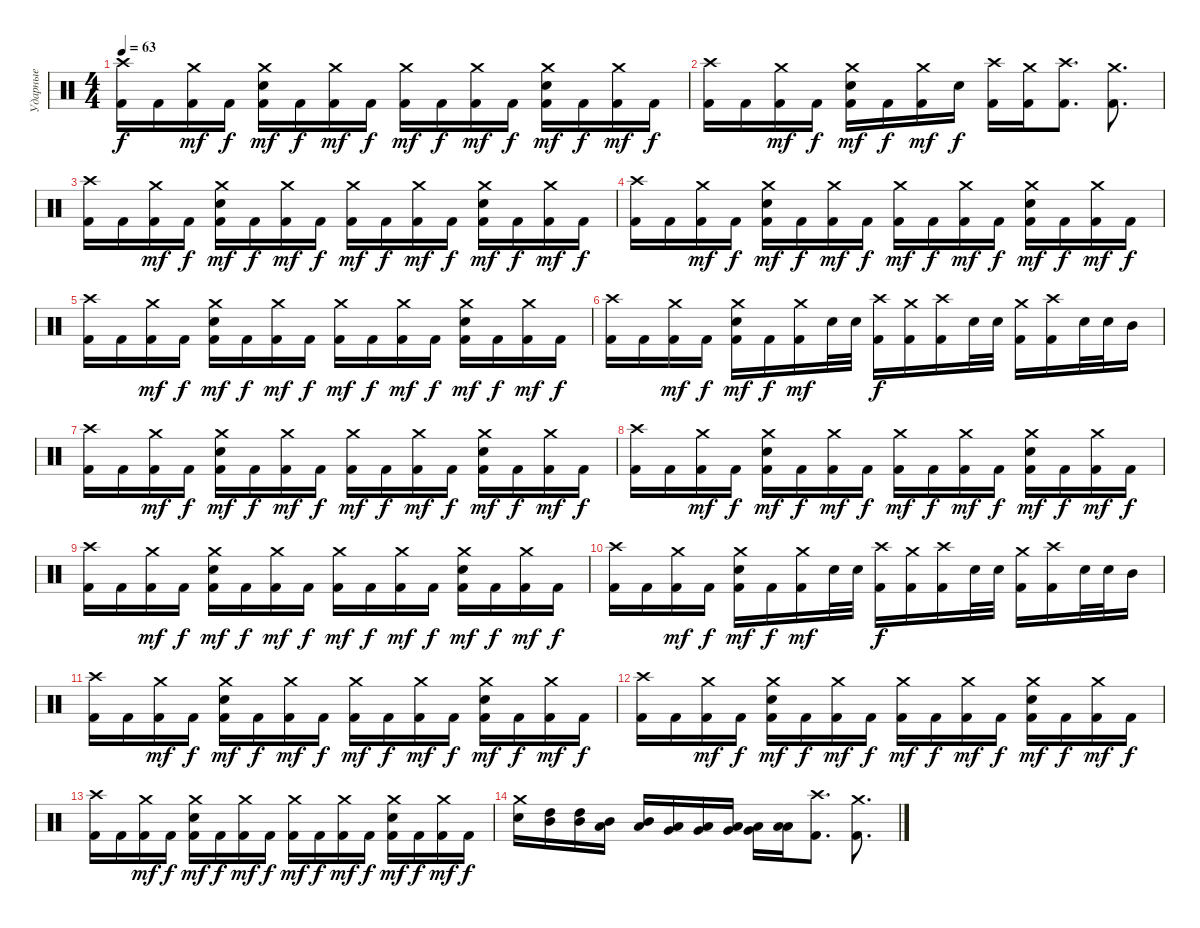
\track ("Ударные" "Ударные") {instrument percussion}
\staff {score}
\articulation defaults
\ts (4 4)
\tempo 63
\clef neutral
\ks c
("Crash high (hit)" "Kick (hit) 2").16{dy f} "Kick (hit) 2".16 ("Crash medium (hit)" "Kick (hit) 2").16{dy mf} "Kick (hit) 2".16{dy f} ("Crash medium (hit)" "Snare (hit) 2" "Kick (hit) 2").16{dy mf} "Kick (hit) 2".16{dy f} ("Crash medium (hit)" "Kick (hit) 2").16{dy mf} "Kick (hit) 2".16{dy f} ("Crash medium (hit)" "Kick (hit) 2").16{dy mf} "Kick (hit) 2".16{dy f} ("Crash medium (hit)" "Kick (hit) 2").16{dy mf} "Kick (hit) 2".16{dy f} ("Crash medium (hit)" "Snare (hit) 2" "Kick (hit) 2").16{dy mf} "Kick (hit) 2".16{dy f} ("Crash medium (hit)" "Kick (hit) 2").16{dy mf} "Kick (hit) 2".16{dy f} |
("Crash high (hit)" "Kick (hit) 2").16 "Kick (hit) 2".16 ("Crash medium (hit)" "Kick (hit) 2").16{dy mf} "Kick (hit) 2".16{dy f} ("Crash medium (hit)" "Snare (hit) 2" "Kick (hit) 2").16{dy mf} "Kick (hit) 2".16{dy f} ("Crash medium (hit)" "Kick (hit) 2").16{dy mf} "Snare (hit) 2".16{dy f} ("Crash high (hit)" "Kick (hit) 2").16 ("Crash medium (hit)" "Kick (hit) 2").16 ("Crash high (hit)" "Kick (hit) 2").8{d} ("Crash medium (hit)" "Kick (hit) 2").8{d} |
("Crash high (hit)" "Kick (hit) 2").16 "Kick (hit) 2".16 ("Crash medium (hit)" "Kick (hit) 2").16{dy mf} "Kick (hit) 2".16{dy f} ("Crash medium (hit)" "Snare (hit) 2" "Kick (hit) 2").16{dy mf} "Kick (hit) 2".16{dy f} ("Crash medium (hit)" "Kick (hit) 2").16{dy mf} "Kick (hit) 2".16{dy f} ("Crash medium (hit)" "Kick (hit) 2").16{dy mf} "Kick (hit) 2".16{dy f} ("Crash medium (hit)" "Kick (hit) 2").16{dy mf} "Kick (hit) 2".16{dy f} ("Crash medium (hit)" "Snare (hit) 2" "Kick (hit) 2").16{dy mf} "Kick (hit) 2".16{dy f} ("Crash medium (hit)" "Kick (hit) 2").16{dy mf} "Kick (hit) 2".16{dy f} |
("Crash high (hit)" "Kick (hit) 2").16 "Kick (hit) 2".16 ("Crash medium (hit)" "Kick (hit) 2").16{dy mf} "Kick (hit) 2".16{dy f} ("Crash medium (hit)" "Snare (hit) 2" "Kick (hit) 2").16{dy mf} "Kick (hit) 2".16{dy f} ("Crash medium (hit)" "Kick (hit) 2").16{dy mf} "Kick (hit) 2".16{dy f} ("Crash medium (hit)" "Kick (hit) 2").16{dy mf} "Kick (hit) 2".16{dy f} ("Crash medium (hit)" "Kick (hit) 2").16{dy mf} "Kick (hit) 2".16{dy f} ("Crash medium (hit)" "Snare (hit) 2" "Kick (hit) 2").16{dy mf} "Kick (hit) 2".16{dy f} ("Crash medium (hit)" "Kick (hit) 2").16{dy mf} "Kick (hit) 2".16{dy f} |
("Crash high (hit)" "Kick (hit) 2").16 "Kick (hit) 2".16 ("Crash medium (hit)" "Kick (hit) 2").16{dy mf} "Kick (hit) 2".16{dy f} ("Crash medium (hit)" "Snare (hit) 2" "Kick (hit) 2").16{dy mf} "Kick (hit) 2".16{dy f} ("Crash medium (hit)" "Kick (hit) 2").16{dy mf} "Kick (hit) 2".16{dy f} ("Crash medium (hit)" "Kick (hit) 2").16{dy mf} "Kick (hit) 2".16{dy f} ("Crash medium (hit)" "Kick (hit) 2").16{dy mf} "Kick (hit) 2".16{dy f} ("Crash medium (hit)" "Snare (hit) 2" "Kick (hit) 2").16{dy mf} "Kick (hit) 2".16{dy f} ("Crash medium (hit)" "Kick (hit) 2").16{dy mf} "Kick (hit) 2".16{dy f} |
("Crash high (hit)" "Kick (hit) 2").16 "Kick (hit) 2".16 ("Crash medium (hit)" "Kick (hit) 2").16{dy mf} "Kick (hit) 2".16{dy f} ("Crash medium (hit)" "Snare (hit) 2" "Kick (hit) 2").16{dy mf} "Kick (hit) 2".16{dy f} ("Crash medium (hit)" "Kick (hit) 2").16{dy mf} "Snare (hit) 2".32 "Snare (hit) 2".32 ("Crash high (hit)" "Kick (hit) 2").16{dy f} ("Crash medium (hit)" "Kick (hit) 2").16 ("Crash high (hit)" "Kick (hit) 2").16 "Snare (hit) 2".32 "Snare (hit) 2".32 ("Crash medium (hit)" "Kick (hit) 2").16 ("Crash high (hit)" "Kick (hit) 2").16 "Snare (hit) 2".32 "Snare (hit) 2".32 "Mid Tom (hit)".16 |
("Crash high (hit)" "Kick (hit) 2").16 "Kick (hit) 2".16 ("Crash medium (hit)" "Kick (hit) 2").16{dy mf} "Kick (hit) 2".16{dy f} ("Crash medium (hit)" "Snare (hit) 2" "Kick (hit) 2").16{dy mf} "Kick (hit) 2".16{dy f} ("Crash medium (hit)" "Kick (hit) 2").16{dy mf} "Kick (hit) 2".16{dy f} ("Crash medium (hit)" "Kick (hit) 2").16{dy mf} "Kick (hit) 2".16{dy f} ("Crash medium (hit)" "Kick (hit) 2").16{dy mf} "Kick (hit) 2".16{dy f} ("Crash medium (hit)" "Snare (hit) 2" "Kick (hit) 2").16{dy mf} "Kick (hit) 2".16{dy f} ("Crash medium (hit)" "Kick (hit) 2").16{dy mf} "Kick (hit) 2".16{dy f} |
("Crash high (hit)" "Kick (hit) 2").16 "Kick (hit) 2".16 ("Crash medium (hit)" "Kick (hit) 2").16{dy mf} "Kick (hit) 2".16{dy f} ("Crash medium (hit)" "Snare (hit) 2" "Kick (hit) 2").16{dy mf} "Kick (hit) 2".16{dy f} ("Crash medium (hit)" "Kick (hit) 2").16{dy mf} "Kick (hit) 2".16{dy f} ("Crash medium (hit)" "Kick (hit) 2").16{dy mf} "Kick (hit) 2".16{dy f} ("Crash medium (hit)" "Kick (hit) 2").16{dy mf} "Kick (hit) 2".16{dy f} ("Crash medium (hit)" "Snare (hit) 2" "Kick (hit) 2").16{dy mf} "Kick (hit) 2".16{dy f} ("Crash medium (hit)" "Kick (hit) 2").16{dy mf} "Kick (hit) 2".16{dy f} |
("Crash high (hit)" "Kick (hit) 2").16 "Kick (hit) 2".16 ("Crash medium (hit)" "Kick (hit) 2").16{dy mf} "Kick (hit) 2".16{dy f} ("Crash medium (hit)" "Snare (hit) 2" "Kick (hit) 2").16{dy mf} "Kick (hit) 2".16{dy f} ("Crash medium (hit)" "Kick (hit) 2").16{dy mf} "Kick (hit) 2".16{dy f} ("Crash medium (hit)" "Kick (hit) 2").16{dy mf} "Kick (hit) 2".16{dy f} ("Crash medium (hit)" "Kick (hit) 2").16{dy mf} "Kick (hit) 2".16{dy f} ("Crash medium (hit)" "Snare (hit) 2" "Kick (hit) 2").16{dy mf} "Kick (hit) 2".16{dy f} ("Crash medium (hit)" "Kick (hit) 2").16{dy mf} "Kick (hit) 2".16{dy f} |
("Crash high (hit)" "Kick (hit) 2").16 "Kick (hit) 2".16 ("Crash medium (hit)" "Kick (hit) 2").16{dy mf} "Kick (hit) 2".16{dy f} ("Crash medium (hit)" "Snare (hit) 2" "Kick (hit) 2").16{dy mf} "Kick (hit) 2".16{dy f} ("Crash medium (hit)" "Kick (hit) 2").16{dy mf} "Snare (hit) 2".32 "Snare (hit) 2".32 ("Crash high (hit)" "Kick (hit) 2").16{dy f} ("Crash medium (hit)" "Kick (hit) 2").16 ("Crash high (hit)" "Kick (hit) 2").16 "Snare (hit) 2".32 "Snare (hit) 2".32 ("Crash medium (hit)" "Kick (hit) 2").16 ("Crash high (hit)" "Kick (hit) 2").16 "Snare (hit) 2".32 "Snare (hit) 2".32 "Mid Tom (hit)".16 |
("Crash high (hit)" "Kick (hit) 2").16 "Kick (hit) 2".16 ("Crash medium (hit)" "Kick (hit) 2").16{dy mf} "Kick (hit) 2".16{dy f} ("Crash medium (hit)" "Snare (hit) 2" "Kick (hit) 2").16{dy mf} "Kick (hit) 2".16{dy f} ("Crash medium (hit)" "Kick (hit) 2").16{dy mf} "Kick (hit) 2".16{dy f} ("Crash medium (hit)" "Kick (hit) 2").16{dy mf} "Kick (hit) 2".16{dy f} ("Crash medium (hit)" "Kick (hit) 2").16{dy mf} "Kick (hit) 2".16{dy f} ("Crash medium (hit)" "Snare (hit) 2" "Kick (hit) 2").16{dy mf} "Kick (hit) 2".16{dy f} ("Crash medium (hit)" "Kick (hit) 2").16{dy mf} "Kick (hit) 2".16{dy f} |
("Crash high (hit)" "Kick (hit) 2").16 "Kick (hit) 2".16 ("Crash medium (hit)" "Kick (hit) 2").16{dy mf} "Kick (hit) 2".16{dy f} ("Crash medium (hit)" "Snare (hit) 2" "Kick (hit) 2").16{dy mf} "Kick (hit) 2".16{dy f} ("Crash medium (hit)" "Kick (hit) 2").16{dy mf} "Kick (hit) 2".16{dy f} ("Crash medium (hit)" "Kick (hit) 2").16{dy mf} "Kick (hit) 2".16{dy f} ("Crash medium (hit)" "Kick (hit) 2").16{dy mf} "Kick (hit) 2".16{dy f} ("Crash medium (hit)" "Snare (hit) 2" "Kick (hit) 2").16{dy mf} "Kick (hit) 2".16{dy f} ("Crash medium (hit)" "Kick (hit) 2").16{dy mf} "Kick (hit) 2".16{dy f} |
("Crash high (hit)" "Kick (hit) 2").16 "Kick (hit) 2".16 ("Crash medium (hit)" "Kick (hit) 2").16{dy mf} "Kick (hit) 2".16{dy f} ("Crash medium (hit)" "Snare (hit) 2" "Kick (hit) 2").16{dy mf} "Kick (hit) 2".16{dy f} ("Crash medium (hit)" "Kick (hit) 2").16{dy mf} "Kick (hit) 2".16{dy f} ("Crash medium (hit)" "Kick (hit) 2").16{dy mf} "Kick (hit) 2".16{dy f} ("Crash medium (hit)" "Kick (hit) 2").16{dy mf} "Kick (hit) 2".16{dy f} ("Crash medium (hit)" "Snare (hit) 2" "Kick (hit) 2").16{dy mf} "Kick (hit) 2".16{dy f} ("Crash medium (hit)" "Kick (hit) 2").16{dy mf} "Kick (hit) 2".16{dy f} |
("Crash medium (hit)" "Snare (hit) 2").16 ("High Tom (hit)" "Mid Tom (hit)").16 ("High Tom (hit)" "Mid Tom (hit)").16 ("Mid Tom (hit)" "Low Tom (hit)").16 ("Mid Tom (hit)" "Low Tom (hit)").16 ("Low Tom (hit)" "Very Low Tom (hit)").16 ("Low Tom (hit)" "Very Low Tom (hit)").16 ("Very Low Tom (hit)" "Low Floor Tom (hit)").16 ("Very Low Tom (hit)" "Low Floor Tom (hit)").16 ("Low Floor Tom (hit)" "Low Floor Tom (hit)").16 ("Crash high (hit)" "Kick (hit) 2").8{d} ("Crash medium (hit)" "Kick (hit) 2").8{d}
